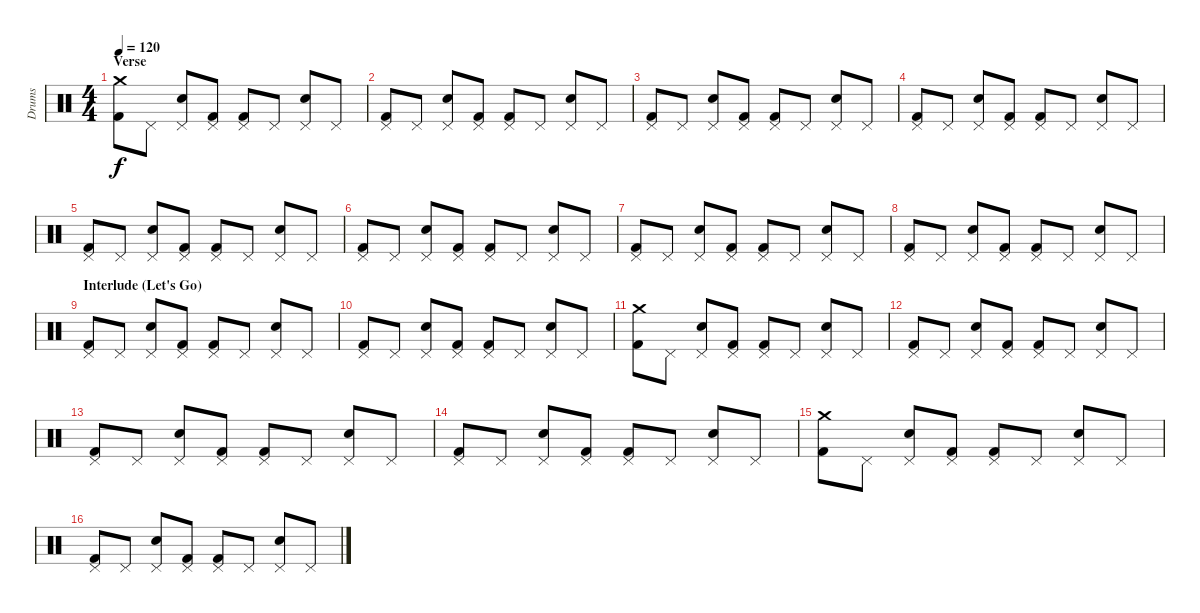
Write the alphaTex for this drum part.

\track ("Drums" "Drums") {instrument percussion}
\staff {score}
\articulation defaults
\ts (4 4)
\section ("" "Verse")
\tempo 120
\clef neutral
\ks c
("Crash medium (hit)" "Kick (hit) 2").8{dy f} "Pedal Hi-Hat (hit)".8 ("Pedal Hi-Hat (hit)" "Electric Snare (hit)").8 ("Pedal Hi-Hat (hit)" "Kick (hit) 2").8 ("Pedal Hi-Hat (hit)" "Kick (hit) 2").8 "Pedal Hi-Hat (hit)".8 ("Pedal Hi-Hat (hit)" "Electric Snare (hit)").8 "Pedal Hi-Hat (hit)".8 |
("Pedal Hi-Hat (hit)" "Kick (hit) 2").8 "Pedal Hi-Hat (hit)".8 ("Pedal Hi-Hat (hit)" "Electric Snare (hit)").8 ("Pedal Hi-Hat (hit)" "Kick (hit) 2").8 ("Pedal Hi-Hat (hit)" "Kick (hit) 2").8 "Pedal Hi-Hat (hit)".8 ("Pedal Hi-Hat (hit)" "Electric Snare (hit)").8 "Pedal Hi-Hat (hit)".8 |
("Pedal Hi-Hat (hit)" "Kick (hit) 2").8 "Pedal Hi-Hat (hit)".8 ("Pedal Hi-Hat (hit)" "Electric Snare (hit)").8 ("Pedal Hi-Hat (hit)" "Kick (hit) 2").8 ("Pedal Hi-Hat (hit)" "Kick (hit) 2").8 "Pedal Hi-Hat (hit)".8 ("Pedal Hi-Hat (hit)" "Electric Snare (hit)").8 "Pedal Hi-Hat (hit)".8 |
("Pedal Hi-Hat (hit)" "Kick (hit) 2").8 "Pedal Hi-Hat (hit)".8 ("Pedal Hi-Hat (hit)" "Electric Snare (hit)").8 ("Pedal Hi-Hat (hit)" "Kick (hit) 2").8 ("Pedal Hi-Hat (hit)" "Kick (hit) 2").8 "Pedal Hi-Hat (hit)".8 ("Pedal Hi-Hat (hit)" "Electric Snare (hit)").8 "Pedal Hi-Hat (hit)".8 |
("Pedal Hi-Hat (hit)" "Kick (hit) 2").8 "Pedal Hi-Hat (hit)".8 ("Pedal Hi-Hat (hit)" "Electric Snare (hit)").8 ("Pedal Hi-Hat (hit)" "Kick (hit) 2").8 ("Pedal Hi-Hat (hit)" "Kick (hit) 2").8 "Pedal Hi-Hat (hit)".8 ("Pedal Hi-Hat (hit)" "Electric Snare (hit)").8 "Pedal Hi-Hat (hit)".8 |
("Pedal Hi-Hat (hit)" "Kick (hit) 2").8 "Pedal Hi-Hat (hit)".8 ("Pedal Hi-Hat (hit)" "Electric Snare (hit)").8 ("Pedal Hi-Hat (hit)" "Kick (hit) 2").8 ("Pedal Hi-Hat (hit)" "Kick (hit) 2").8 "Pedal Hi-Hat (hit)".8 ("Pedal Hi-Hat (hit)" "Electric Snare (hit)").8 "Pedal Hi-Hat (hit)".8 |
("Pedal Hi-Hat (hit)" "Kick (hit) 2").8 "Pedal Hi-Hat (hit)".8 ("Pedal Hi-Hat (hit)" "Electric Snare (hit)").8 ("Pedal Hi-Hat (hit)" "Kick (hit) 2").8 ("Pedal Hi-Hat (hit)" "Kick (hit) 2").8 "Pedal Hi-Hat (hit)".8 ("Pedal Hi-Hat (hit)" "Electric Snare (hit)").8 "Pedal Hi-Hat (hit)".8 |
("Pedal Hi-Hat (hit)" "Kick (hit) 2").8 "Pedal Hi-Hat (hit)".8 ("Pedal Hi-Hat (hit)" "Electric Snare (hit)").8 ("Pedal Hi-Hat (hit)" "Kick (hit) 2").8 ("Pedal Hi-Hat (hit)" "Kick (hit) 2").8 "Pedal Hi-Hat (hit)".8 ("Pedal Hi-Hat (hit)" "Electric Snare (hit)").8 "Pedal Hi-Hat (hit)".8 |
\section ("" "Interlude (Let's Go)")
("Pedal Hi-Hat (hit)" "Kick (hit) 2").8 "Pedal Hi-Hat (hit)".8 ("Pedal Hi-Hat (hit)" "Electric Snare (hit)").8 ("Pedal Hi-Hat (hit)" "Kick (hit) 2").8 ("Pedal Hi-Hat (hit)" "Kick (hit) 2").8 "Pedal Hi-Hat (hit)".8 ("Pedal Hi-Hat (hit)" "Electric Snare (hit)").8 "Pedal Hi-Hat (hit)".8 |
("Pedal Hi-Hat (hit)" "Kick (hit) 2").8 "Pedal Hi-Hat (hit)".8 ("Pedal Hi-Hat (hit)" "Electric Snare (hit)").8 ("Pedal Hi-Hat (hit)" "Kick (hit) 2").8 ("Pedal Hi-Hat (hit)" "Kick (hit) 2").8 "Pedal Hi-Hat (hit)".8 ("Pedal Hi-Hat (hit)" "Electric Snare (hit)").8 "Pedal Hi-Hat (hit)".8 |
("Crash medium (hit)" "Kick (hit) 2").8 "Pedal Hi-Hat (hit)".8 ("Pedal Hi-Hat (hit)" "Electric Snare (hit)").8 ("Pedal Hi-Hat (hit)" "Kick (hit) 2").8 ("Pedal Hi-Hat (hit)" "Kick (hit) 2").8 "Pedal Hi-Hat (hit)".8 ("Pedal Hi-Hat (hit)" "Electric Snare (hit)").8 "Pedal Hi-Hat (hit)".8 |
("Pedal Hi-Hat (hit)" "Kick (hit) 2").8 "Pedal Hi-Hat (hit)".8 ("Pedal Hi-Hat (hit)" "Electric Snare (hit)").8 ("Pedal Hi-Hat (hit)" "Kick (hit) 2").8 ("Pedal Hi-Hat (hit)" "Kick (hit) 2").8 "Pedal Hi-Hat (hit)".8 ("Pedal Hi-Hat (hit)" "Electric Snare (hit)").8 "Pedal Hi-Hat (hit)".8 |
("Pedal Hi-Hat (hit)" "Kick (hit) 2").8 "Pedal Hi-Hat (hit)".8 ("Pedal Hi-Hat (hit)" "Electric Snare (hit)").8 ("Pedal Hi-Hat (hit)" "Kick (hit) 2").8 ("Pedal Hi-Hat (hit)" "Kick (hit) 2").8 "Pedal Hi-Hat (hit)".8 ("Pedal Hi-Hat (hit)" "Electric Snare (hit)").8 "Pedal Hi-Hat (hit)".8 |
("Pedal Hi-Hat (hit)" "Kick (hit) 2").8 "Pedal Hi-Hat (hit)".8 ("Pedal Hi-Hat (hit)" "Electric Snare (hit)").8 ("Pedal Hi-Hat (hit)" "Kick (hit) 2").8 ("Pedal Hi-Hat (hit)" "Kick (hit) 2").8 "Pedal Hi-Hat (hit)".8 ("Pedal Hi-Hat (hit)" "Electric Snare (hit)").8 "Pedal Hi-Hat (hit)".8 |
("Crash medium (hit)" "Kick (hit) 2").8 "Pedal Hi-Hat (hit)".8 ("Pedal Hi-Hat (hit)" "Electric Snare (hit)").8 ("Pedal Hi-Hat (hit)" "Kick (hit) 2").8 ("Pedal Hi-Hat (hit)" "Kick (hit) 2").8 "Pedal Hi-Hat (hit)".8 ("Pedal Hi-Hat (hit)" "Electric Snare (hit)").8 "Pedal Hi-Hat (hit)".8 |
("Pedal Hi-Hat (hit)" "Kick (hit) 2").8 "Pedal Hi-Hat (hit)".8 ("Pedal Hi-Hat (hit)" "Electric Snare (hit)").8 ("Pedal Hi-Hat (hit)" "Kick (hit) 2").8 ("Pedal Hi-Hat (hit)" "Kick (hit) 2").8 "Pedal Hi-Hat (hit)".8 ("Pedal Hi-Hat (hit)" "Electric Snare (hit)").8 "Pedal Hi-Hat (hit)".8
